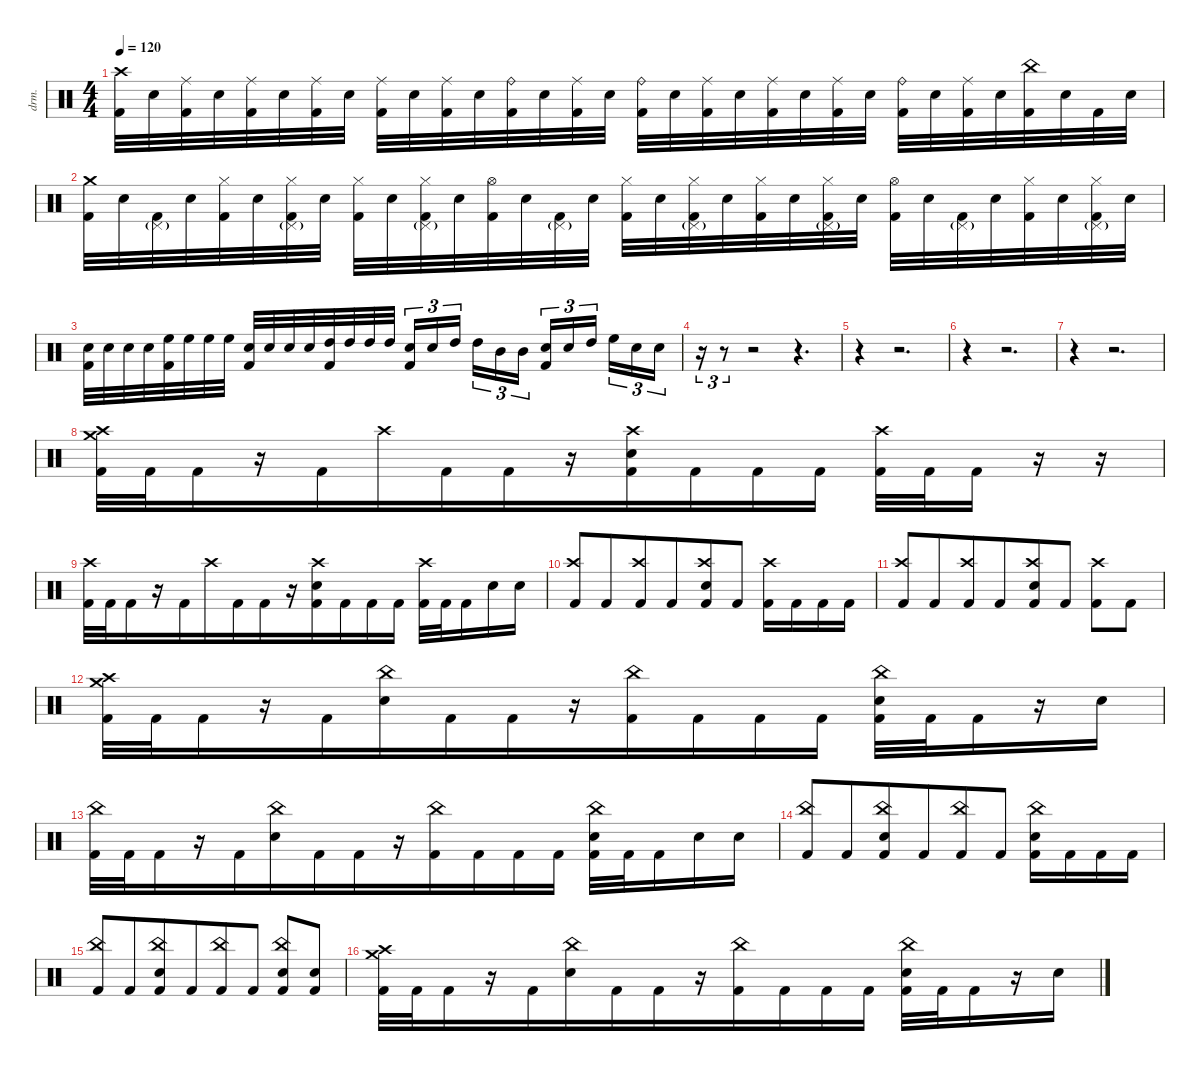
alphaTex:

\defaultSystemsLayout 4
\hideDynamics
\bracketExtendMode nobrackets
\otherSystemsTrackNameOrientation horizontal
\track ("Percussion" "drm.") {instrument percussion}
\staff {score}
\articulation defaults
\ts (4 4)
\tempo 120
\clef neutral
\ks c
("Kick (hit) 2" "Crash high (hit)").32{dy fff beam Down} "Snare (hit) 2".32{beam Down} ("Kick (hit) 2" "Ride (middle)").32{beam Down} "Snare (hit) 2".32{beam Down} ("Kick (hit) 2" "Ride (middle)").32{beam Down} "Snare (hit) 2".32{beam Down} ("Kick (hit) 2" "Ride (middle)").32{beam Down} "Snare (hit) 2".32{beam Down} ("Kick (hit) 2" "Ride (middle)").32{beam Down} "Snare (hit) 2".32{beam Down} ("Kick (hit) 2" "Ride (middle)").32{beam Down} "Snare (hit) 2".32{beam Down} ("Kick (hit) 2" "Ride (bell)").32{beam Down} "Snare (hit) 2".32{beam Down} ("Kick (hit) 2" "Ride (middle)").32{beam Down} "Snare (hit) 2".32{beam Down} ("Kick (hit) 2" "Ride (bell)").32{beam Down} "Snare (hit) 2".32{beam Down} ("Kick (hit) 2" "Ride (middle)").32{beam Down} "Snare (hit) 2".32{beam Down} ("Kick (hit) 2" "Ride (middle)").32{beam Down} "Snare (hit) 2".32{beam Down} ("Kick (hit) 2" "Ride (middle)").32{beam Down} "Snare (hit) 2".32{beam Down} ("Kick (hit) 2" "Ride (bell)").32{beam Down} "Snare (hit) 2".32{beam Down} ("Kick (hit) 2" "Ride (middle)").32{beam Down} "Snare (hit) 2".32{beam Down} ("Kick (hit) 2" "China (hit)").32{beam Down} "Snare (hit) 2".32{beam Down} "Kick (hit) 2".32{beam Down} "Snare (hit) 2".32{beam Down} |
("Kick (hit) 2" "Crash medium (hit)").32{beam Down} "Snare (hit) 2".32{beam Down} ("Kick (hit) 2" "Pedal Hi-Hat (hit)"{g}).32{beam Down} "Snare (hit) 2".32{beam Down} ("Kick (hit) 2" "Hi-Hat (closed)").32{beam Down} "Snare (hit) 2".32{beam Down} ("Kick (hit) 2" "Pedal Hi-Hat (hit)"{g} "Hi-Hat (closed)").32{beam Down} "Snare (hit) 2".32{beam Down} ("Kick (hit) 2" "Hi-Hat (closed)").32{beam Down} "Snare (hit) 2".32{beam Down} ("Kick (hit) 2" "Pedal Hi-Hat (hit)"{g} "Hi-Hat (closed)").32{beam Down} "Snare (hit) 2".32{beam Down} ("Kick (hit) 2" "Hi-Hat (open)").32{beam Down} "Snare (hit) 2".32{beam Down} ("Kick (hit) 2" "Pedal Hi-Hat (hit)"{g}).32{beam Down} "Snare (hit) 2".32{beam Down} ("Kick (hit) 2" "Hi-Hat (closed)").32{beam Down} "Snare (hit) 2".32{beam Down} ("Kick (hit) 2" "Pedal Hi-Hat (hit)"{g} "Hi-Hat (closed)").32{beam Down} "Snare (hit) 2".32{beam Down} ("Kick (hit) 2" "Hi-Hat (closed)").32{beam Down} "Snare (hit) 2".32{beam Down} ("Kick (hit) 2" "Pedal Hi-Hat (hit)"{g} "Hi-Hat (closed)").32{beam Down} "Snare (hit) 2".32{beam Down} ("Kick (hit) 2" "Hi-Hat (open)").32{beam Down} "Snare (hit) 2".32{beam Down} ("Kick (hit) 2" "Pedal Hi-Hat (hit)"{g}).32{beam Down} "Snare (hit) 2".32{beam Down} ("Kick (hit) 2" "Hi-Hat (closed)").32{beam Down} "Snare (hit) 2".32{beam Down} ("Kick (hit) 2" "Pedal Hi-Hat (hit)"{g} "Hi-Hat (closed)").32{beam Down} "Snare (hit) 2".32{beam Down} |
("Kick (hit) 2" "Snare (hit) 2").32{beam Down} "Snare (hit) 2".32{beam Down} "Snare (hit) 2".32{beam Down} "Snare (hit) 2".32{beam Down} ("Kick (hit) 2" "High Floor Tom (hit)").32{beam Down} "High Floor Tom (hit)".32{beam Down} "High Floor Tom (hit)".32{beam Down} "High Floor Tom (hit)".32{beam Down} ("Kick (hit) 2" "Snare (hit) 2").32{beam Up} "Snare (hit) 2".32{beam Up} "Snare (hit) 2".32{beam Up} "Snare (hit) 2".32{beam Up} ("Kick (hit) 2" "High Tom (hit)").32{beam Up} "High Tom (hit)".32{beam Up} "High Tom (hit)".32{beam Up} "High Tom (hit)".32{beam Up} ("Kick (hit) 2" "Snare (hit) 2").16{tu (3 2) beam Up} "Snare (hit) 2".16{tu (3 2) beam Up} "High Tom (hit)".16{tu (3 2) beam Up} "High Tom (hit)".16{tu (3 2) beam Down} "Mid Tom (hit)".16{tu (3 2) beam Down} "Mid Tom (hit)".16{tu (3 2) beam Down} ("Kick (hit) 2" "Snare (hit) 2").16{tu (3 2) beam Up} "Snare (hit) 2".16{tu (3 2) beam Up} "High Tom (hit)".16{tu (3 2) beam Up} "High Floor Tom (hit)".16{tu (3 2) beam Down} "Snare (hit) 2".16{tu (3 2) beam Down} "Snare (hit) 2".16{tu (3 2) beam Down} |
\beaming (8 6 6)
r.16{tu (3 2) beam Down} r.8{tu (3 2) beam Down} r.2{beam Down} r.4{d beam Down} |
r.4{beam Down} r.2{d beam Down} |
r.4{beam Down} r.2{d beam Down} |
r.4{beam Down} r.2{d beam Down} |
("Kick (hit) 2" "Crash medium (hit)" "Crash high (hit)").32{beam Down} "Kick (hit) 2".32{beam Down} "Kick (hit) 2".16{beam Down} r.16{beam Down} "Kick (hit) 2".16{beam Down} "Crash high (hit)".16{beam Down} "Kick (hit) 2".16{beam Down} "Kick (hit) 2".16{beam Down} r.16{beam Down} ("Kick (hit) 2" "Snare (hit) 2" "Crash high (hit)").16{beam Down} "Kick (hit) 2".16{beam Down} "Kick (hit) 2".16{beam Down} "Kick (hit) 2".16{beam Down} ("Kick (hit) 2" "Crash high (hit)").32{beam Down} "Kick (hit) 2".32{beam Down} "Kick (hit) 2".16{beam Down} r.16{beam Down} r.16{beam Down} |
("Kick (hit) 2" "Crash high (hit)").32{beam Down} "Kick (hit) 2".32{beam Down} "Kick (hit) 2".16{beam Down} r.16{beam Down} "Kick (hit) 2".16{beam Down} "Crash high (hit)".16{beam Down} "Kick (hit) 2".16{beam Down} "Kick (hit) 2".16{beam Down} r.16{beam Down} ("Kick (hit) 2" "Snare (hit) 2" "Crash high (hit)").16{beam Down} "Kick (hit) 2".16{beam Down} "Kick (hit) 2".16{beam Down} "Kick (hit) 2".16{beam Down} ("Kick (hit) 2" "Crash high (hit)").32{beam Down} "Kick (hit) 2".32{beam Down} "Kick (hit) 2".16{beam Down} "Snare (hit) 2".16{beam Down} "Snare (hit) 2".16{beam Down} |
("Kick (hit) 2" "Crash high (hit)").8{beam Up} "Kick (hit) 2".8{beam Up} ("Kick (hit) 2" "Crash high (hit)").8{beam Up} "Kick (hit) 2".8{beam Up} ("Kick (hit) 2" "Snare (hit) 2" "Crash high (hit)").8{beam Up} "Kick (hit) 2".8{beam Up} ("Kick (hit) 2" "Crash high (hit)").16{beam Down} "Kick (hit) 2".16{beam Down} "Kick (hit) 2".16{beam Down} "Kick (hit) 2".16{beam Down} |
("Kick (hit) 2" "Crash high (hit)").8{beam Up} "Kick (hit) 2".8{beam Up} ("Kick (hit) 2" "Crash high (hit)").8{beam Up} "Kick (hit) 2".8{beam Up} ("Kick (hit) 2" "Snare (hit) 2" "Crash high (hit)").8{beam Up} "Kick (hit) 2".8{beam Up} ("Kick (hit) 2" "Crash high (hit)").8{beam Down} "Kick (hit) 2".8{beam Down} |
("Kick (hit) 2" "Crash medium (hit)" "Crash high (hit)").32{beam Down} "Kick (hit) 2".32{beam Down} "Kick (hit) 2".16{beam Down} r.16{beam Down} "Kick (hit) 2".16{beam Down} ("Snare (hit) 2" "China (hit)").16{beam Down} "Kick (hit) 2".16{beam Down} "Kick (hit) 2".16{beam Down} r.16{beam Down} ("Kick (hit) 2" "China (hit)").16{beam Down} "Kick (hit) 2".16{beam Down} "Kick (hit) 2".16{beam Down} "Kick (hit) 2".16{beam Down} ("Kick (hit) 2" "Snare (hit) 2" "China (hit)").32{beam Down} "Kick (hit) 2".32{beam Down} "Kick (hit) 2".16{beam Down} r.16{beam Down} "Snare (hit) 2".16{beam Down} |
("Kick (hit) 2" "China (hit)").32{beam Down} "Kick (hit) 2".32{beam Down} "Kick (hit) 2".16{beam Down} r.16{beam Down} "Kick (hit) 2".16{beam Down} ("Snare (hit) 2" "China (hit)").16{beam Down} "Kick (hit) 2".16{beam Down} "Kick (hit) 2".16{beam Down} r.16{beam Down} ("Kick (hit) 2" "China (hit)").16{beam Down} "Kick (hit) 2".16{beam Down} "Kick (hit) 2".16{beam Down} "Kick (hit) 2".16{beam Down} ("Kick (hit) 2" "Snare (hit) 2" "China (hit)").32{beam Down} "Kick (hit) 2".32{beam Down} "Kick (hit) 2".16{beam Down} "Snare (hit) 2".16{beam Down} "Snare (hit) 2".16{beam Down} |
("Kick (hit) 2" "China (hit)").8{beam Up} "Kick (hit) 2".8{beam Up} ("Kick (hit) 2" "Snare (hit) 2" "China (hit)").8{beam Up} "Kick (hit) 2".8{beam Up} ("Kick (hit) 2" "China (hit)").8{beam Up} "Kick (hit) 2".8{beam Up} ("Kick (hit) 2" "Snare (hit) 2" "China (hit)").16{beam Down} "Kick (hit) 2".16{beam Down} "Kick (hit) 2".16{beam Down} "Kick (hit) 2".16{beam Down} |
("Kick (hit) 2" "China (hit)").8{beam Up} "Kick (hit) 2".8{beam Up} ("Kick (hit) 2" "Snare (hit) 2" "China (hit)").8{beam Up} "Kick (hit) 2".8{beam Up} ("Kick (hit) 2" "China (hit)").8{beam Up} "Kick (hit) 2".8{beam Up} ("Kick (hit) 2" "Snare (hit) 2" "China (hit)").8{beam Up} ("Kick (hit) 2" "Snare (hit) 2").8{beam Up} |
("Kick (hit) 2" "Crash medium (hit)" "Crash high (hit)").32{beam Down} "Kick (hit) 2".32{beam Down} "Kick (hit) 2".16{beam Down} r.16{beam Down} "Kick (hit) 2".16{beam Down} ("Snare (hit) 2" "China (hit)").16{beam Down} "Kick (hit) 2".16{beam Down} "Kick (hit) 2".16{beam Down} r.16{beam Down} ("Kick (hit) 2" "China (hit)").16{beam Down} "Kick (hit) 2".16{beam Down} "Kick (hit) 2".16{beam Down} "Kick (hit) 2".16{beam Down} ("Kick (hit) 2" "Snare (hit) 2" "China (hit)").32{beam Down} "Kick (hit) 2".32{beam Down} "Kick (hit) 2".16{beam Down} r.16{beam Down} "Snare (hit) 2".16{beam Down}
